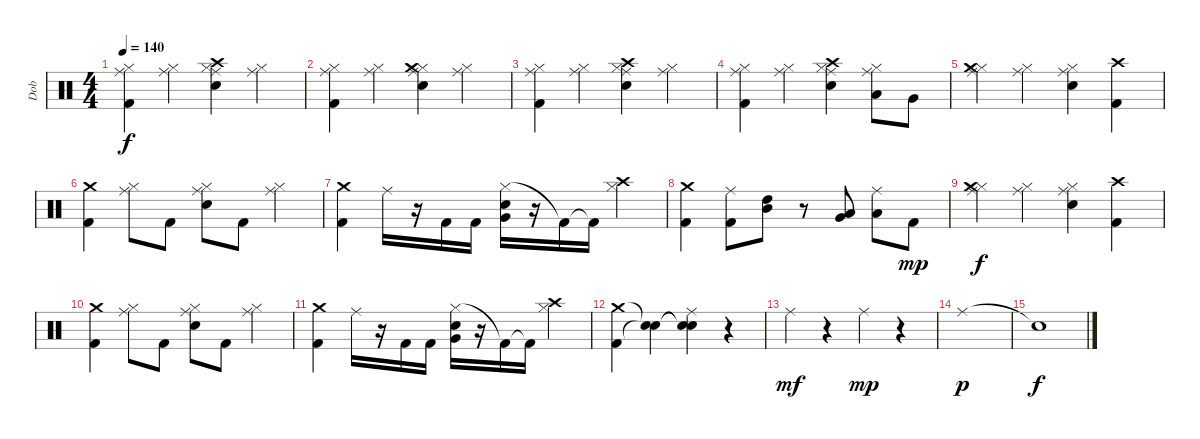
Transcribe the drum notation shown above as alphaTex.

\track ("Dob" "Dob") {instrument percussion}
\staff {score}
\articulation defaults
\ts (4 4)
\tempo 140
\clef neutral
\ks c
("Hi-Hat (closed)" "Kick (hit) 2" "Ride (middle)").4{dy f} ("Hi-Hat (closed)" "Ride (middle)").4 ("Hi-Hat (closed)" "Crash high (hit)" "Electric Snare (hit)" "Ride (middle)").4 ("Hi-Hat (closed)" "Ride (middle)").4 |
("Hi-Hat (closed)" "Kick (hit) 2" "Ride (middle)").4 ("Hi-Hat (closed)" "Ride (middle)").4 ("Hi-Hat (closed)" "Crash medium (hit)" "Electric Snare (hit)" "Ride (middle)").4 ("Hi-Hat (closed)" "Ride (middle)").4 |
("Hi-Hat (closed)" "Kick (hit) 2" "Ride (middle)").4 ("Hi-Hat (closed)" "Ride (middle)").4 ("Hi-Hat (closed)" "Crash high (hit)" "Electric Snare (hit)" "Ride (middle)").4 ("Hi-Hat (closed)" "Ride (middle)").4 |
("Hi-Hat (closed)" "Kick (hit) 2" "Ride (middle)").4 ("Hi-Hat (closed)" "Ride (middle)").4 ("Hi-Hat (closed)" "Crash high (hit)" "Electric Snare (hit)" "Ride (middle)").4 ("Hi-Hat (closed)" "Low Tom (hit)" "Ride (middle)").8 "Very Low Tom (hit)".8 |
("Hi-Hat (closed)" "Crash medium (hit)" "Ride (middle)").4 ("Hi-Hat (closed)" "Ride (middle)").4 ("Hi-Hat (closed)" "Electric Snare (hit)" "Ride (middle)").4 ("Crash high (hit)" "Kick (hit) 2").4 |
("Crash medium (hit)" "Kick (hit) 2").4 ("Hi-Hat (closed)" "Ride (middle)").8 "Kick (hit) 2".8 ("Hi-Hat (closed)" "Electric Snare (hit)" "Ride (middle)").8 "Kick (hit) 2".8 ("Hi-Hat (closed)" "Ride (middle)").4 |
("Crash medium (hit)" "Kick (hit) 2").4 "Ride (middle)".16 r.16 "Kick (hit) 2".16 "Kick (hit) 2".16 ("Hi-Hat (closed)" "Very Low Tom (hit)" "Electric Snare (hit)").16 r.16 "Kick (hit) 2"{t}.16 "Kick (hit) 2"{t}.16 ("Hi-Hat (closed)" "Crash high (hit)").4 |
("Crash medium (hit)" "Kick (hit) 2").4 ("Kick (hit) 2" "Ride (middle)").8 ("High Tom (hit)" "Mid Tom (hit)").8 r.8 ("Low Tom (hit)" "Very Low Tom (hit)").8 ("Low Floor Tom (hit)" "Ride (middle)").8 "Kick (hit) 2".8{dy mp} |
("Hi-Hat (closed)" "Crash medium (hit)" "Ride (middle)").4{dy f} ("Hi-Hat (closed)" "Ride (middle)").4 ("Hi-Hat (closed)" "Electric Snare (hit)" "Ride (middle)").4 ("Crash high (hit)" "Kick (hit) 2").4 |
("Crash medium (hit)" "Kick (hit) 2").4 ("Hi-Hat (closed)" "Ride (middle)").8 "Kick (hit) 2".8 ("Hi-Hat (closed)" "Electric Snare (hit)" "Ride (middle)").8 "Kick (hit) 2".8 ("Hi-Hat (closed)" "Ride (middle)").4 |
("Crash medium (hit)" "Kick (hit) 2").4 "Ride (middle)".16 r.16 "Kick (hit) 2".16 "Kick (hit) 2".16 ("Hi-Hat (closed)" "Very Low Tom (hit)" "Electric Snare (hit)").16 r.16 "Kick (hit) 2"{t}.16 "Kick (hit) 2"{t}.16 ("Hi-Hat (closed)" "Crash high (hit)").4 |
("Crash medium (hit)" "Kick (hit) 2").4 ("Snare (hit)"{t} "Snare (hit)"{t}).4 ("Snare (hit)"{t} "Snare (hit)"{t} "Ride (middle)").4 r.4 |
"Ride (middle)".4{dy mf} r.4 "Ride (middle)".4{dy mp} r.4 |
"Ride (middle)".1{dy p} |
"Snare (hit)"{t}.1{dy f}
